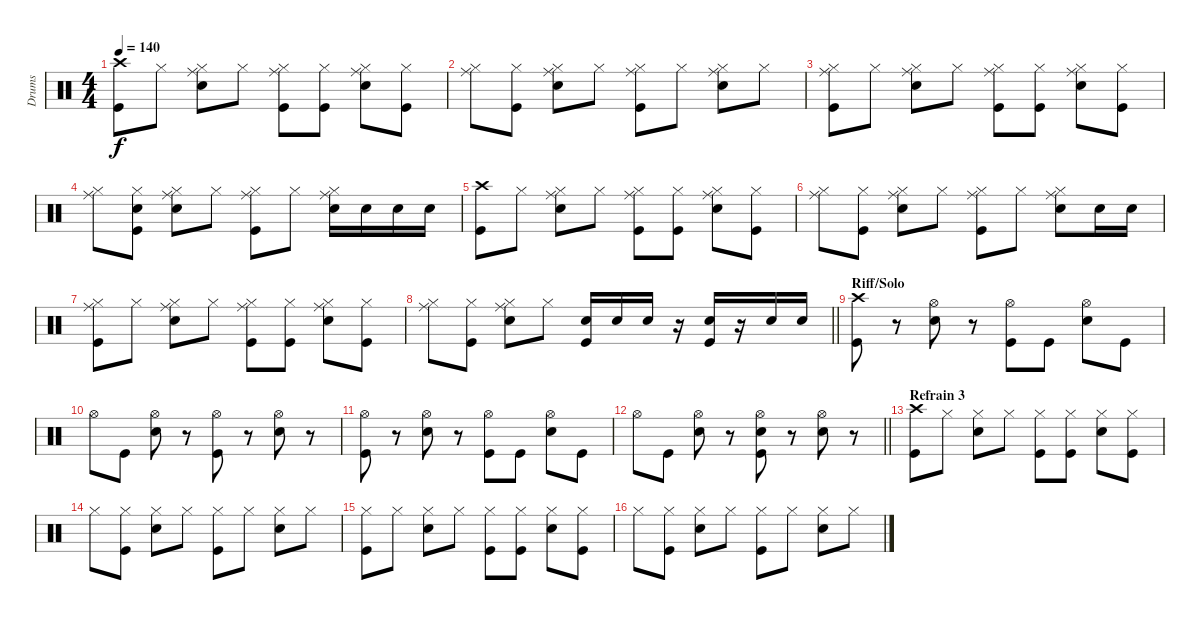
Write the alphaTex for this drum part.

\track ("Drums" "Drums") {instrument percussion}
\staff {score}
\articulation defaults
\ts (4 4)
\tempo 140
\clef neutral
\ks c
("Kick (hit)" "Crash high (hit)").8{dy f} "Hi-Hat (closed)".8 ("Electric Snare (hit)" "Hi-Hat (closed)" "Ride (middle)").8 "Hi-Hat (closed)".8 ("Kick (hit)" "Hi-Hat (closed)" "Ride (middle)").8 ("Kick (hit)" "Hi-Hat (closed)").8 ("Electric Snare (hit)" "Hi-Hat (closed)" "Ride (middle)").8 ("Kick (hit)" "Hi-Hat (closed)").8 |
("Hi-Hat (closed)" "Ride (middle)").8 ("Kick (hit)" "Hi-Hat (closed)").8 ("Electric Snare (hit)" "Hi-Hat (closed)" "Ride (middle)").8 "Hi-Hat (closed)".8 ("Kick (hit)" "Hi-Hat (closed)" "Ride (middle)").8 "Hi-Hat (closed)".8 ("Electric Snare (hit)" "Hi-Hat (closed)" "Ride (middle)").8 "Hi-Hat (closed)".8 |
("Kick (hit)" "Hi-Hat (closed)" "Ride (middle)").8 "Hi-Hat (closed)".8 ("Electric Snare (hit)" "Hi-Hat (closed)" "Ride (middle)").8 "Hi-Hat (closed)".8 ("Kick (hit)" "Hi-Hat (closed)" "Ride (middle)").8 ("Kick (hit)" "Hi-Hat (closed)").8 ("Electric Snare (hit)" "Hi-Hat (closed)" "Ride (middle)").8 ("Kick (hit)" "Hi-Hat (closed)").8 |
("Hi-Hat (closed)" "Ride (middle)").8 ("Kick (hit)" "Electric Snare (hit)" "Hi-Hat (closed)").8 ("Electric Snare (hit)" "Hi-Hat (closed)" "Ride (middle)").8 "Hi-Hat (closed)".8 ("Kick (hit)" "Hi-Hat (closed)" "Ride (middle)").8 "Hi-Hat (closed)".8 ("Electric Snare (hit)" "Hi-Hat (closed)" "Ride (middle)").16 "Electric Snare (hit)".16 "Electric Snare (hit)".16 "Electric Snare (hit)".16 |
("Kick (hit)" "Crash high (hit)").8 "Hi-Hat (closed)".8 ("Electric Snare (hit)" "Hi-Hat (closed)" "Ride (middle)").8 "Hi-Hat (closed)".8 ("Kick (hit)" "Hi-Hat (closed)" "Ride (middle)").8 ("Kick (hit)" "Hi-Hat (closed)").8 ("Electric Snare (hit)" "Hi-Hat (closed)" "Ride (middle)").8 ("Kick (hit)" "Hi-Hat (closed)").8 |
("Hi-Hat (closed)" "Ride (middle)").8 ("Kick (hit)" "Hi-Hat (closed)").8 ("Electric Snare (hit)" "Hi-Hat (closed)" "Ride (middle)").8 "Hi-Hat (closed)".8 ("Kick (hit)" "Hi-Hat (closed)" "Ride (middle)").8 "Hi-Hat (closed)".8 ("Electric Snare (hit)" "Hi-Hat (closed)" "Ride (middle)").8 "Electric Snare (hit)".16 "Electric Snare (hit)".16 |
("Kick (hit)" "Hi-Hat (closed)" "Ride (middle)").8 "Hi-Hat (closed)".8 ("Electric Snare (hit)" "Hi-Hat (closed)" "Ride (middle)").8 "Hi-Hat (closed)".8 ("Kick (hit)" "Hi-Hat (closed)" "Ride (middle)").8 ("Kick (hit)" "Hi-Hat (closed)").8 ("Electric Snare (hit)" "Hi-Hat (closed)" "Ride (middle)").8 ("Kick (hit)" "Hi-Hat (closed)").8 |
\barLineRight lightlight
("Hi-Hat (closed)" "Ride (middle)").8 ("Kick (hit)" "Hi-Hat (closed)").8 ("Electric Snare (hit)" "Hi-Hat (closed)" "Ride (middle)").8 "Hi-Hat (closed)".8 ("Kick (hit)" "Electric Snare (hit)").16 "Electric Snare (hit)".16 "Electric Snare (hit)".16 r.16 ("Kick (hit)" "Electric Snare (hit)").16 r.16 "Electric Snare (hit)".16 "Electric Snare (hit)".16 |
\section ("" "Riff/Solo")
("Kick (hit)" "Crash high (hit)").8 r.8 ("Electric Snare (hit)" "Hi-Hat (open)").8 r.8 ("Kick (hit)" "Hi-Hat (open)").8 "Kick (hit)".8 ("Electric Snare (hit)" "Hi-Hat (open)").8 "Kick (hit)".8 |
"Hi-Hat (open)".8 "Kick (hit)".8 ("Electric Snare (hit)" "Hi-Hat (open)").8 r.8 ("Kick (hit)" "Hi-Hat (open)").8 r.8 ("Electric Snare (hit)" "Hi-Hat (open)").8 r.8 |
("Kick (hit)" "Hi-Hat (open)").8 r.8 ("Electric Snare (hit)" "Hi-Hat (open)").8 r.8 ("Kick (hit)" "Hi-Hat (open)").8 "Kick (hit)".8 ("Electric Snare (hit)" "Hi-Hat (open)").8 "Kick (hit)".8 |
\barLineRight lightlight "Hi-Hat (open)".8 "Kick (hit)".8
("Electric Snare (hit)" "Hi-Hat (open)").8 r.8 ("Kick (hit)" "Electric Snare (hit)" "Hi-Hat (open)").8 r.8 ("Electric Snare (hit)" "Hi-Hat (open)").8 r.8 |
\section ("" "Refrain 3")
("Kick (hit)" "Crash high (hit)").8 "Hi-Hat (closed)".8 ("Electric Snare (hit)" "Hi-Hat (closed)").8 "Hi-Hat (closed)".8 ("Kick (hit)" "Hi-Hat (closed)").8 ("Kick (hit)" "Hi-Hat (closed)").8 ("Electric Snare (hit)" "Hi-Hat (closed)").8 ("Kick (hit)" "Hi-Hat (closed)").8 |
"Hi-Hat (closed)".8 ("Kick (hit)" "Hi-Hat (closed)").8 ("Electric Snare (hit)" "Hi-Hat (closed)").8 "Hi-Hat (closed)".8 ("Kick (hit)" "Hi-Hat (closed)").8 "Hi-Hat (closed)".8 ("Electric Snare (hit)" "Hi-Hat (closed)").8 "Hi-Hat (closed)".8 |
("Kick (hit)" "Hi-Hat (closed)").8 "Hi-Hat (closed)".8 ("Electric Snare (hit)" "Hi-Hat (closed)").8 "Hi-Hat (closed)".8 ("Kick (hit)" "Hi-Hat (closed)").8 ("Kick (hit)" "Hi-Hat (closed)").8 ("Electric Snare (hit)" "Hi-Hat (closed)").8 ("Kick (hit)" "Hi-Hat (closed)").8 |
"Hi-Hat (closed)".8 ("Kick (hit)" "Hi-Hat (closed)").8 ("Electric Snare (hit)" "Hi-Hat (closed)").8 "Hi-Hat (closed)".8 ("Kick (hit)" "Hi-Hat (closed)").8 "Hi-Hat (closed)".8 ("Electric Snare (hit)" "Hi-Hat (closed)").8 "Hi-Hat (closed)".8
